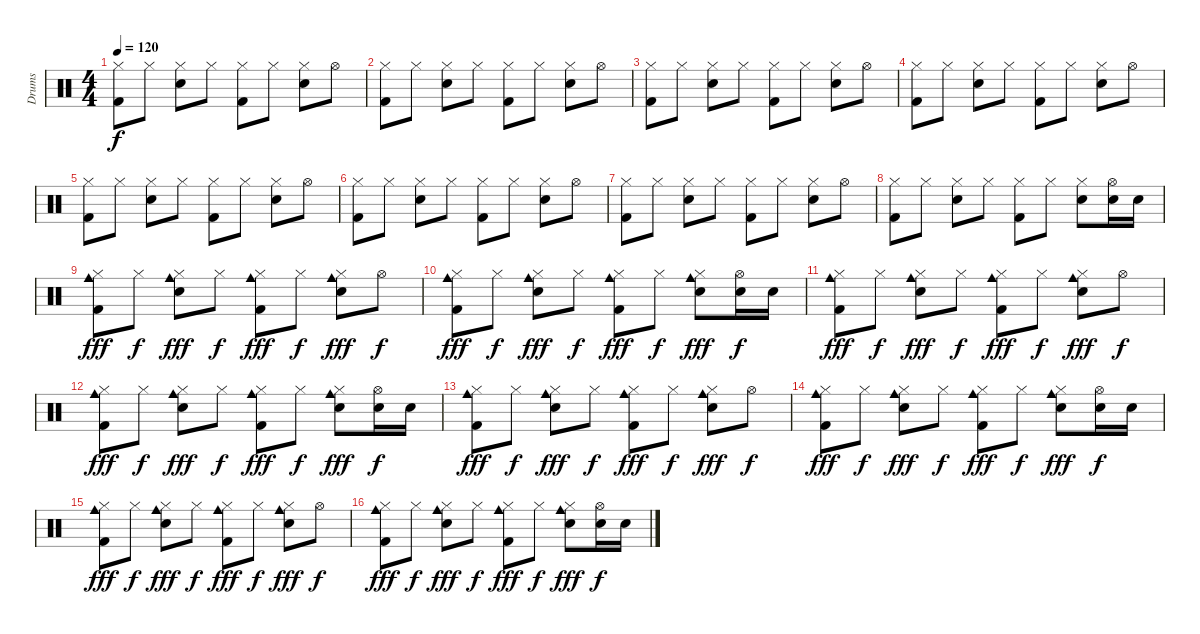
\track ("Drums" "Drums") {instrument percussion}
\staff {score}
\articulation defaults
\ts (4 4)
\tempo 120
\clef neutral
\ks c
("Hi-Hat (closed)" "Kick (hit) 2").8{dy f} "Hi-Hat (closed)".8 ("Hi-Hat (closed)" "Electric Snare (hit)").8 "Hi-Hat (closed)".8 ("Hi-Hat (closed)" "Kick (hit) 2").8 "Hi-Hat (closed)".8 ("Hi-Hat (closed)" "Electric Snare (hit)").8 "Hi-Hat (open)".8 |
("Hi-Hat (closed)" "Kick (hit) 2").8 "Hi-Hat (closed)".8 ("Hi-Hat (closed)" "Electric Snare (hit)").8 "Hi-Hat (closed)".8 ("Hi-Hat (closed)" "Kick (hit) 2").8 "Hi-Hat (closed)".8 ("Hi-Hat (closed)" "Electric Snare (hit)").8 "Hi-Hat (open)".8 |
("Hi-Hat (closed)" "Kick (hit) 2").8 "Hi-Hat (closed)".8 ("Hi-Hat (closed)" "Electric Snare (hit)").8 "Hi-Hat (closed)".8 ("Hi-Hat (closed)" "Kick (hit) 2").8 "Hi-Hat (closed)".8 ("Hi-Hat (closed)" "Electric Snare (hit)").8 "Hi-Hat (open)".8 |
("Hi-Hat (closed)" "Kick (hit) 2").8 "Hi-Hat (closed)".8 ("Hi-Hat (closed)" "Electric Snare (hit)").8 "Hi-Hat (closed)".8 ("Hi-Hat (closed)" "Kick (hit) 2").8 "Hi-Hat (closed)".8 ("Hi-Hat (closed)" "Electric Snare (hit)").8 "Hi-Hat (open)".8 |
("Hi-Hat (closed)" "Kick (hit) 2").8 "Hi-Hat (closed)".8 ("Hi-Hat (closed)" "Electric Snare (hit)").8 "Hi-Hat (closed)".8 ("Hi-Hat (closed)" "Kick (hit) 2").8 "Hi-Hat (closed)".8 ("Hi-Hat (closed)" "Electric Snare (hit)").8 "Hi-Hat (open)".8 |
("Hi-Hat (closed)" "Kick (hit) 2").8 "Hi-Hat (closed)".8 ("Hi-Hat (closed)" "Electric Snare (hit)").8 "Hi-Hat (closed)".8 ("Hi-Hat (closed)" "Kick (hit) 2").8 "Hi-Hat (closed)".8 ("Hi-Hat (closed)" "Electric Snare (hit)").8 "Hi-Hat (open)".8 |
("Hi-Hat (closed)" "Kick (hit) 2").8 "Hi-Hat (closed)".8 ("Hi-Hat (closed)" "Electric Snare (hit)").8 "Hi-Hat (closed)".8 ("Hi-Hat (closed)" "Kick (hit) 2").8 "Hi-Hat (closed)".8 ("Hi-Hat (closed)" "Electric Snare (hit)").8 "Hi-Hat (open)".8 |
("Hi-Hat (closed)" "Kick (hit) 2").8 "Hi-Hat (closed)".8 ("Hi-Hat (closed)" "Electric Snare (hit)").8 "Hi-Hat (closed)".8 ("Hi-Hat (closed)" "Kick (hit) 2").8 "Hi-Hat (closed)".8 ("Hi-Hat (closed)" "Electric Snare (hit)").8 ("Electric Snare (hit)" "Hi-Hat (open)").16 "Electric Snare (hit)".16 |
("Cowbell medium (hit)" "Hi-Hat (closed)" "Kick (hit) 2").8{dy fff} "Hi-Hat (closed)".8{dy f} ("Cowbell medium (hit)" "Hi-Hat (closed)" "Electric Snare (hit)").8{dy fff} "Hi-Hat (closed)".8{dy f} ("Cowbell medium (hit)" "Hi-Hat (closed)" "Kick (hit) 2").8{dy fff} "Hi-Hat (closed)".8{dy f} ("Cowbell medium (hit)" "Hi-Hat (closed)" "Electric Snare (hit)").8{dy fff} "Hi-Hat (open)".8{dy f} |
("Cowbell medium (hit)" "Hi-Hat (closed)" "Kick (hit) 2").8{dy fff} "Hi-Hat (closed)".8{dy f} ("Cowbell medium (hit)" "Hi-Hat (closed)" "Electric Snare (hit)").8{dy fff} "Hi-Hat (closed)".8{dy f} ("Cowbell medium (hit)" "Hi-Hat (closed)" "Kick (hit) 2").8{dy fff} "Hi-Hat (closed)".8{dy f} ("Cowbell medium (hit)" "Hi-Hat (closed)" "Electric Snare (hit)").8{dy fff} ("Electric Snare (hit)" "Hi-Hat (open)").16{dy f} "Electric Snare (hit)".16 |
("Cowbell medium (hit)" "Hi-Hat (closed)" "Kick (hit) 2").8{dy fff} "Hi-Hat (closed)".8{dy f} ("Cowbell medium (hit)" "Hi-Hat (closed)" "Electric Snare (hit)").8{dy fff} "Hi-Hat (closed)".8{dy f} ("Cowbell medium (hit)" "Hi-Hat (closed)" "Kick (hit) 2").8{dy fff} "Hi-Hat (closed)".8{dy f} ("Cowbell medium (hit)" "Hi-Hat (closed)" "Electric Snare (hit)").8{dy fff} "Hi-Hat (open)".8{dy f} |
("Cowbell medium (hit)" "Hi-Hat (closed)" "Kick (hit) 2").8{dy fff} "Hi-Hat (closed)".8{dy f} ("Cowbell medium (hit)" "Hi-Hat (closed)" "Electric Snare (hit)").8{dy fff} "Hi-Hat (closed)".8{dy f} ("Cowbell medium (hit)" "Hi-Hat (closed)" "Kick (hit) 2").8{dy fff} "Hi-Hat (closed)".8{dy f} ("Cowbell medium (hit)" "Hi-Hat (closed)" "Electric Snare (hit)").8{dy fff} ("Electric Snare (hit)" "Hi-Hat (open)").16{dy f} "Electric Snare (hit)".16 |
("Cowbell medium (hit)" "Hi-Hat (closed)" "Kick (hit) 2").8{dy fff} "Hi-Hat (closed)".8{dy f} ("Cowbell medium (hit)" "Hi-Hat (closed)" "Electric Snare (hit)").8{dy fff} "Hi-Hat (closed)".8{dy f} ("Cowbell medium (hit)" "Hi-Hat (closed)" "Kick (hit) 2").8{dy fff} "Hi-Hat (closed)".8{dy f} ("Cowbell medium (hit)" "Hi-Hat (closed)" "Electric Snare (hit)").8{dy fff} "Hi-Hat (open)".8{dy f} |
("Cowbell medium (hit)" "Hi-Hat (closed)" "Kick (hit) 2").8{dy fff} "Hi-Hat (closed)".8{dy f} ("Cowbell medium (hit)" "Hi-Hat (closed)" "Electric Snare (hit)").8{dy fff} "Hi-Hat (closed)".8{dy f} ("Cowbell medium (hit)" "Hi-Hat (closed)" "Kick (hit) 2").8{dy fff} "Hi-Hat (closed)".8{dy f} ("Cowbell medium (hit)" "Hi-Hat (closed)" "Electric Snare (hit)").8{dy fff} ("Electric Snare (hit)" "Hi-Hat (open)").16{dy f} "Electric Snare (hit)".16 |
("Cowbell medium (hit)" "Hi-Hat (closed)" "Kick (hit) 2").8{dy fff} "Hi-Hat (closed)".8{dy f} ("Cowbell medium (hit)" "Hi-Hat (closed)" "Electric Snare (hit)").8{dy fff} "Hi-Hat (closed)".8{dy f} ("Cowbell medium (hit)" "Hi-Hat (closed)" "Kick (hit) 2").8{dy fff} "Hi-Hat (closed)".8{dy f} ("Cowbell medium (hit)" "Hi-Hat (closed)" "Electric Snare (hit)").8{dy fff} "Hi-Hat (open)".8{dy f} |
("Cowbell medium (hit)" "Hi-Hat (closed)" "Kick (hit) 2").8{dy fff} "Hi-Hat (closed)".8{dy f} ("Cowbell medium (hit)" "Hi-Hat (closed)" "Electric Snare (hit)").8{dy fff} "Hi-Hat (closed)".8{dy f} ("Cowbell medium (hit)" "Hi-Hat (closed)" "Kick (hit) 2").8{dy fff} "Hi-Hat (closed)".8{dy f} ("Cowbell medium (hit)" "Hi-Hat (closed)" "Electric Snare (hit)").8{dy fff} ("Electric Snare (hit)" "Hi-Hat (open)").16{dy f} "Electric Snare (hit)".16
